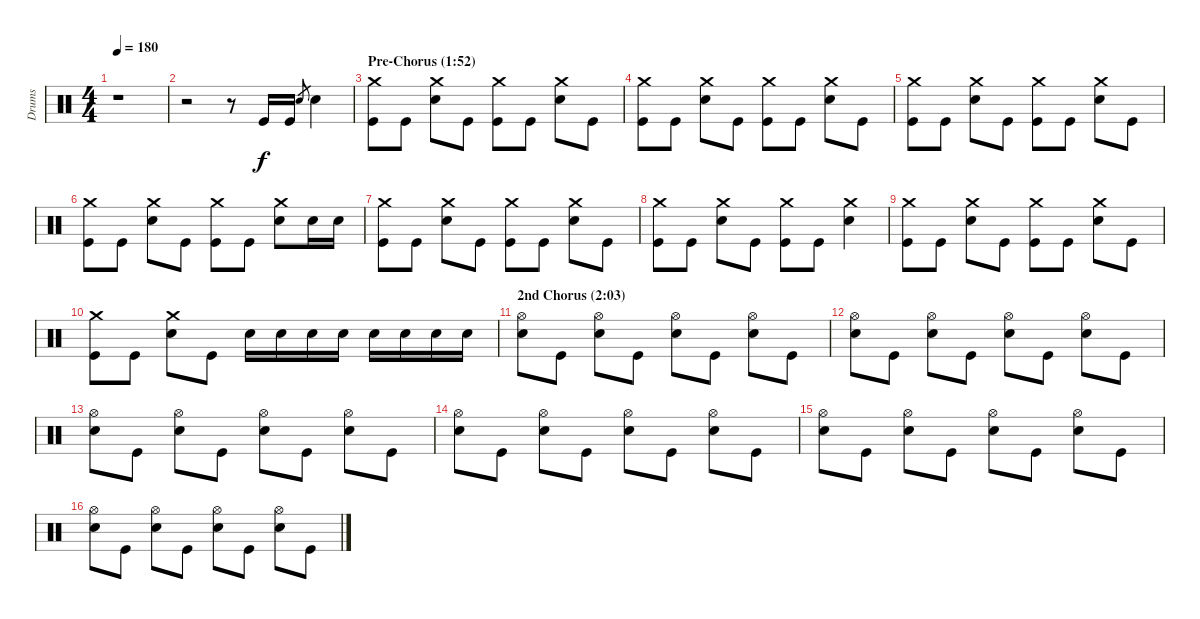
\track ("Drums" "Drums") {instrument percussion}
\staff {score}
\articulation defaults
\ts (4 4)
\tempo 180
\clef neutral
\ks c
r.1{dy f} |
r.2 r.8 "Kick (hit)".16 "Kick (hit)".16 "Snare (hit) 2".8{gr} "Snare (hit) 2".4 |
\section ("" "Pre-Chorus (1:52)")
("Crash medium (hit)" "Kick (hit)").8 "Kick (hit)".8 ("Crash medium (hit)" "Snare (hit) 2").8 "Kick (hit)".8 ("Crash medium (hit)" "Kick (hit)").8 "Kick (hit)".8 ("Crash medium (hit)" "Snare (hit) 2").8 "Kick (hit)".8 |
("Crash medium (hit)" "Kick (hit)").8 "Kick (hit)".8 ("Crash medium (hit)" "Snare (hit) 2").8 "Kick (hit)".8 ("Crash medium (hit)" "Kick (hit)").8 "Kick (hit)".8 ("Crash medium (hit)" "Snare (hit) 2").8 "Kick (hit)".8 |
("Crash medium (hit)" "Kick (hit)").8 "Kick (hit)".8 ("Crash medium (hit)" "Snare (hit) 2").8 "Kick (hit)".8 ("Crash medium (hit)" "Kick (hit)").8 "Kick (hit)".8 ("Crash medium (hit)" "Snare (hit) 2").8 "Kick (hit)".8 |
("Crash medium (hit)" "Kick (hit)").8 "Kick (hit)".8 ("Crash medium (hit)" "Snare (hit) 2").8 "Kick (hit)".8 ("Crash medium (hit)" "Kick (hit)").8 "Kick (hit)".8 ("Crash medium (hit)" "Snare (hit) 2").8 "Snare (hit) 2".16 "Snare (hit) 2".16 |
("Crash medium (hit)" "Kick (hit)").8 "Kick (hit)".8 ("Crash medium (hit)" "Snare (hit) 2").8 "Kick (hit)".8 ("Crash medium (hit)" "Kick (hit)").8 "Kick (hit)".8 ("Crash medium (hit)" "Snare (hit) 2").8 "Kick (hit)".8 |
("Crash medium (hit)" "Kick (hit)").8 "Kick (hit)".8 ("Crash medium (hit)" "Snare (hit) 2").8 "Kick (hit)".8 ("Crash medium (hit)" "Kick (hit)").8 "Kick (hit)".8 ("Crash medium (hit)" "Snare (hit) 2").4 |
("Crash medium (hit)" "Kick (hit)").8 "Kick (hit)".8 ("Crash medium (hit)" "Snare (hit) 2").8 "Kick (hit)".8 ("Crash medium (hit)" "Kick (hit)").8 "Kick (hit)".8 ("Crash medium (hit)" "Snare (hit) 2").8 "Kick (hit)".8 |
("Crash medium (hit)" "Kick (hit)").8 "Kick (hit)".8 ("Crash medium (hit)" "Snare (hit) 2").8 "Kick (hit)".8 "Snare (hit) 2".16 "Snare (hit) 2".16 "Snare (hit) 2".16 "Snare (hit) 2".16 "Snare (hit) 2".16 "Snare (hit) 2".16 "Snare (hit) 2".16 "Snare (hit) 2".16 |
\section ("" "2nd Chorus (2:03)")
("Hi-Hat (open)" "Snare (hit) 2").8 "Kick (hit)".8 ("Hi-Hat (open)" "Snare (hit) 2").8 "Kick (hit)".8 ("Hi-Hat (open)" "Snare (hit) 2").8 "Kick (hit)".8 ("Hi-Hat (open)" "Snare (hit) 2").8 "Kick (hit)".8 |
("Hi-Hat (open)" "Snare (hit) 2").8 "Kick (hit)".8 ("Hi-Hat (open)" "Snare (hit) 2").8 "Kick (hit)".8 ("Hi-Hat (open)" "Snare (hit) 2").8 "Kick (hit)".8 ("Hi-Hat (open)" "Snare (hit) 2").8 "Kick (hit)".8 |
("Hi-Hat (open)" "Snare (hit) 2").8 "Kick (hit)".8 ("Hi-Hat (open)" "Snare (hit) 2").8 "Kick (hit)".8 ("Hi-Hat (open)" "Snare (hit) 2").8 "Kick (hit)".8 ("Hi-Hat (open)" "Snare (hit) 2").8 "Kick (hit)".8 |
("Hi-Hat (open)" "Snare (hit) 2").8 "Kick (hit)".8 ("Hi-Hat (open)" "Snare (hit) 2").8 "Kick (hit)".8 ("Hi-Hat (open)" "Snare (hit) 2").8 "Kick (hit)".8 ("Hi-Hat (open)" "Snare (hit) 2").8 "Kick (hit)".8 |
("Hi-Hat (open)" "Snare (hit) 2").8 "Kick (hit)".8 ("Hi-Hat (open)" "Snare (hit) 2").8 "Kick (hit)".8 ("Hi-Hat (open)" "Snare (hit) 2").8 "Kick (hit)".8 ("Hi-Hat (open)" "Snare (hit) 2").8 "Kick (hit)".8 |
("Hi-Hat (open)" "Snare (hit) 2").8 "Kick (hit)".8 ("Hi-Hat (open)" "Snare (hit) 2").8 "Kick (hit)".8 ("Hi-Hat (open)" "Snare (hit) 2").8 "Kick (hit)".8 ("Hi-Hat (open)" "Snare (hit) 2").8 "Kick (hit)".8
